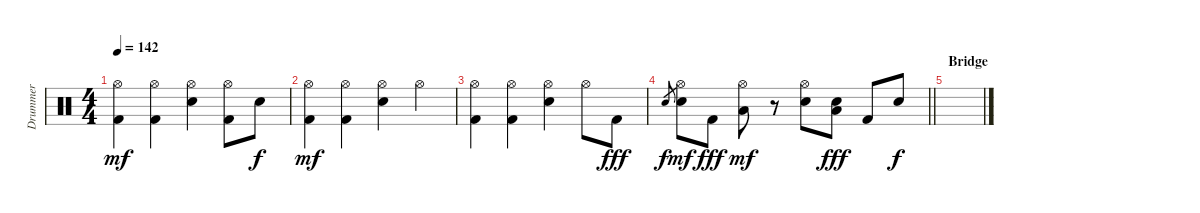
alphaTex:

\track ("Drummer" "Drummer") {instrument percussion}
\staff {score}
\articulation defaults
\ts (4 4)
\tempo 142
\clef neutral
\ks c
("Kick (hit) 2" "Hi-Hat (open)").4{dy mf} ("Kick (hit) 2" "Hi-Hat (open)").4 ("Electric Snare (hit)" "Hi-Hat (open)").4 ("Kick (hit) 2" "Hi-Hat (open)").8 "Electric Snare (hit)".8{dy f} |
("Kick (hit) 2" "Hi-Hat (open)").4{dy mf} ("Kick (hit) 2" "Hi-Hat (open)").4 ("Electric Snare (hit)" "Hi-Hat (open)").4 "Hi-Hat (open)".4 |
("Kick (hit) 2" "Hi-Hat (open)").4 ("Kick (hit) 2" "Hi-Hat (open)").4 ("Electric Snare (hit)" "Hi-Hat (open)").4 "Hi-Hat (open)".8 "Kick (hit) 2".8{dy fff} |
\barLineRight lightlight "Electric Snare (hit)".8{gr dy f}
("Electric Snare (hit)" "Hi-Hat (open)").8{dy mf} "Kick (hit) 2".8{dy fff} ("Low Tom (hit)" "Hi-Hat (open)").8{dy mf} r.8 ("Electric Snare (hit)" "Hi-Hat (open)").8 ("Electric Snare (hit)" "Low Tom (hit)").8{dy fff} "Kick (hit) 2".8 "Electric Snare (hit)".8{dy f} |
\section ("" "Bridge")
